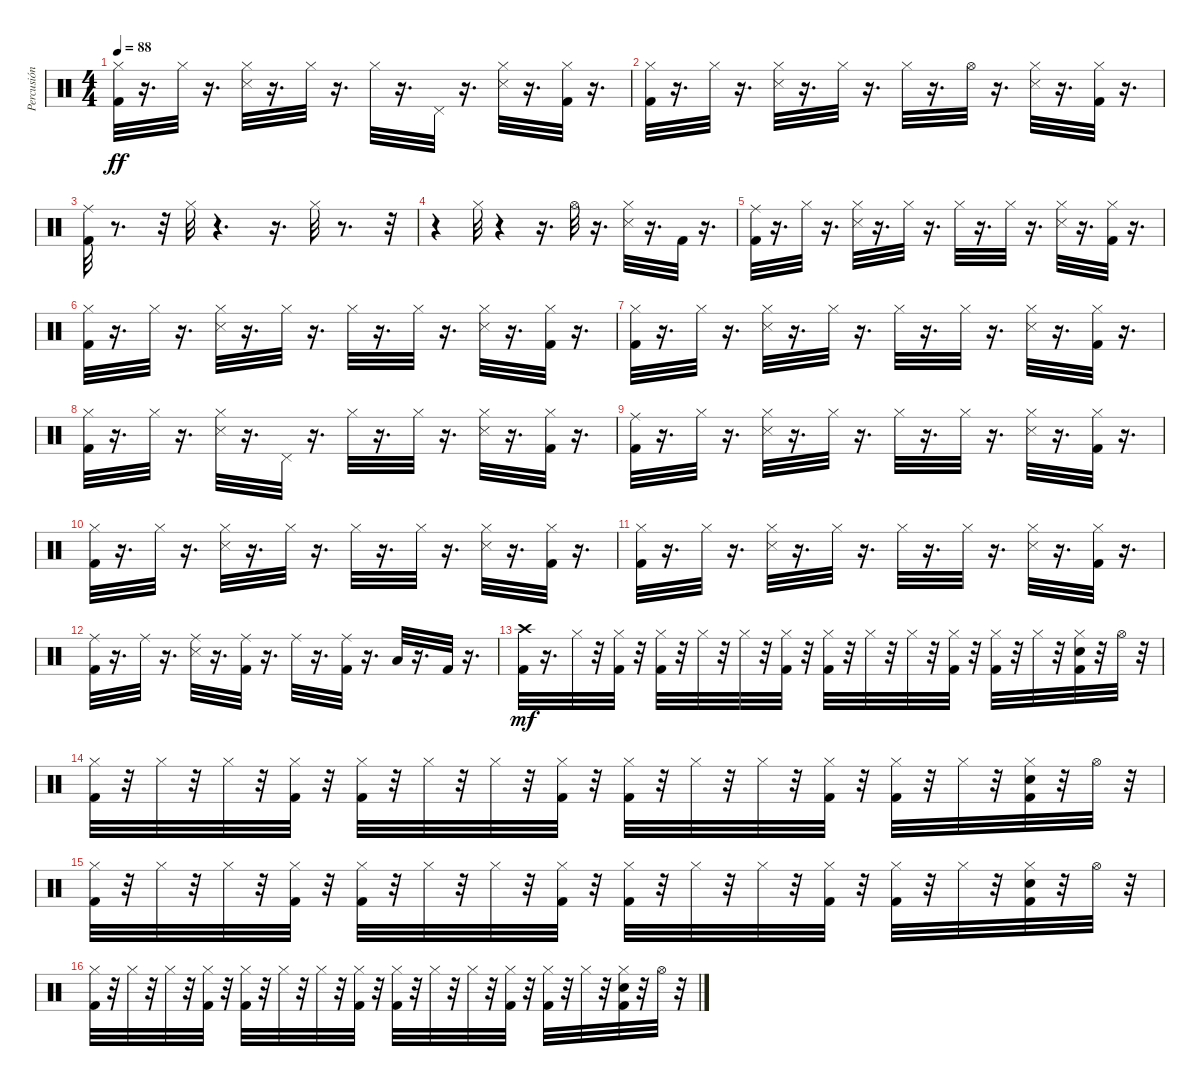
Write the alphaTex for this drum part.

\track ("Percusión" "Percusión") {instrument percussion}
\staff {score}
\articulation defaults
\ts (4 4)
\tempo 88
\clef neutral
\ks c
("Hi-Hat (closed)" "Kick (hit) 2").32{dy ff} r.16{d} "Hi-Hat (closed)".32 r.16{d} ("Hi-Hat (closed)" "Snare (side stick) 3").32 r.16{d} "Hi-Hat (closed)".32 r.16{d} "Hi-Hat (closed)".32 r.16{d} "Pedal Hi-Hat (hit)".32 r.16{d} ("Snare (side stick) 3" "Hi-Hat (closed)").32 r.16{d} ("Kick (hit) 2" "Hi-Hat (closed)").32 r.16{d} |
("Hi-Hat (closed)" "Kick (hit) 2").32 r.16{d} "Hi-Hat (closed)".32 r.16{d} ("Hi-Hat (closed)" "Snare (side stick) 3").32 r.16{d} "Hi-Hat (closed)".32 r.16{d} "Hi-Hat (closed)".32 r.16{d} "Hi-Hat (open)".32 r.16{d} ("Snare (side stick) 3" "Hi-Hat (closed)").32 r.16{d} ("Hi-Hat (closed)" "Kick (hit) 2").32 r.16{d} |
("Ride (middle)" "Kick (hit) 2").32 r.8{d} r.32 "Hi-Hat (closed)".32 r.4{d} r.16{d} "Hi-Hat (closed)".32 r.8{d} r.32 |
r.4 "Hi-Hat (closed)".32 r.4 r.16{d} "Hi-Hat (open)".32 r.16{d} ("Hi-Hat (closed)" "Snare (side stick) 3").32 r.16{d} "Kick (hit) 2".32 r.16{d} |
("Ride (middle)" "Kick (hit) 2").32 r.16{d} "Hi-Hat (closed)".32 r.16{d} ("Hi-Hat (closed)" "Snare (side stick) 3").32 r.16{d} "Hi-Hat (closed)".32 r.16{d} "Hi-Hat (closed)".32 r.16{d} "Hi-Hat (closed)".32 r.16{d} ("Snare (side stick) 3" "Hi-Hat (closed)").32 r.16{d} ("Hi-Hat (closed)" "Kick (hit) 2").32 r.16{d} |
("Kick (hit) 2" "Hi-Hat (closed)").32 r.16{d} "Hi-Hat (closed)".32 r.16{d} ("Snare (side stick) 3" "Hi-Hat (closed)").32 r.16{d} "Hi-Hat (closed)".32 r.16{d} "Hi-Hat (closed)".32 r.16{d} "Hi-Hat (closed)".32 r.16{d} ("Hi-Hat (closed)" "Snare (side stick) 3").32 r.16{d} ("Hi-Hat (closed)" "Kick (hit) 2").32 r.16{d} |
("Hi-Hat (closed)" "Kick (hit) 2").32 r.16{d} "Hi-Hat (closed)".32 r.16{d} ("Snare (side stick) 3" "Hi-Hat (closed)").32 r.16{d} "Hi-Hat (closed)".32 r.16{d} "Hi-Hat (closed)".32 r.16{d} "Hi-Hat (closed)".32 r.16{d} ("Snare (side stick) 3" "Hi-Hat (closed)").32 r.16{d} ("Hi-Hat (closed)" "Kick (hit) 2").32 r.16{d} |
("Kick (hit) 2" "Hi-Hat (closed)").32 r.16{d} "Hi-Hat (closed)".32 r.16{d} ("Hi-Hat (closed)" "Snare (side stick) 3").32 r.16{d} "Pedal Hi-Hat (hit)".32 r.16{d} "Hi-Hat (closed)".32 r.16{d} "Hi-Hat (closed)".32 r.16{d} ("Snare (side stick) 3" "Hi-Hat (closed)").32 r.16{d} ("Hi-Hat (closed)" "Kick (hit) 2").32 r.16{d} |
("Ride (middle)" "Kick (hit) 2").32 r.16{d} "Hi-Hat (closed)".32 r.16{d} ("Hi-Hat (closed)" "Snare (side stick) 3").32 r.16{d} "Hi-Hat (closed)".32 r.16{d} "Hi-Hat (closed)".32 r.16{d} "Hi-Hat (closed)".32 r.16{d} ("Snare (side stick) 3" "Hi-Hat (closed)").32 r.16{d} ("Hi-Hat (closed)" "Kick (hit) 2").32 r.16{d} |
("Kick (hit) 2" "Hi-Hat (closed)").32 r.16{d} "Hi-Hat (closed)".32 r.16{d} ("Snare (side stick) 3" "Hi-Hat (closed)").32 r.16{d} "Hi-Hat (closed)".32 r.16{d} "Hi-Hat (closed)".32 r.16{d} "Hi-Hat (closed)".32 r.16{d} ("Hi-Hat (closed)" "Snare (side stick) 3").32 r.16{d} ("Hi-Hat (closed)" "Kick (hit) 2").32 r.16{d} |
("Hi-Hat (closed)" "Kick (hit) 2").32 r.16{d} "Hi-Hat (closed)".32 r.16{d} ("Snare (side stick) 3" "Hi-Hat (closed)").32 r.16{d} "Hi-Hat (closed)".32 r.16{d} "Hi-Hat (closed)".32 r.16{d} "Hi-Hat (closed)".32 r.16{d} ("Snare (side stick) 3" "Hi-Hat (closed)").32 r.16{d} ("Hi-Hat (closed)" "Kick (hit) 2").32 r.16{d} |
("Kick (hit) 2" "Ride (middle)").32 r.16{d} "Ride (middle)".32 r.16{d} ("Ride (middle)" "Snare (side stick) 3").32 r.16{d} ("Ride (middle)" "Kick (hit) 2").32 r.16{d} "Ride (middle)".32 r.16{d} ("Kick (hit) 2" "Ride (middle)").32 r.16{d} "Low Floor Tom (hit)".32 r.16{d} "Kick (hit) 2".32 r.16{d} |
("Crash high (hit)" "Kick (hit) 2").32{dy mf} r.16{d} "Hi-Hat (closed)".32 r.32 ("Hi-Hat (closed)" "Kick (hit) 2").32 r.32 ("Hi-Hat (closed)" "Kick (hit) 2").32 r.32 "Hi-Hat (closed)".32 r.32 "Hi-Hat (closed)".32 r.32 ("Hi-Hat (closed)" "Kick (hit) 2").32 r.32 ("Hi-Hat (closed)" "Kick (hit) 2").32 r.32 "Hi-Hat (closed)".32 r.32 "Hi-Hat (closed)".32 r.32 ("Hi-Hat (closed)" "Kick (hit) 2").32 r.32 ("Hi-Hat (closed)" "Kick (hit) 2").32 r.32 "Hi-Hat (closed)".32 r.32 ("Hi-Hat (closed)" "Kick (hit) 2" "Hand Clap (hit)").32 r.32 "Hi-Hat (open)".32 r.32 |
("Hi-Hat (closed)" "Kick (hit) 2").32 r.32 "Hi-Hat (closed)".32 r.32 "Hi-Hat (closed)".32 r.32 ("Hi-Hat (closed)" "Kick (hit) 2").32 r.32 ("Hi-Hat (closed)" "Kick (hit) 2").32 r.32 "Hi-Hat (closed)".32 r.32 "Hi-Hat (closed)".32 r.32 ("Hi-Hat (closed)" "Kick (hit) 2").32 r.32 ("Hi-Hat (closed)" "Kick (hit) 2").32 r.32 "Hi-Hat (closed)".32 r.32 "Hi-Hat (closed)".32 r.32 ("Hi-Hat (closed)" "Kick (hit) 2").32 r.32 ("Hi-Hat (closed)" "Kick (hit) 2").32 r.32 "Hi-Hat (closed)".32 r.32 ("Hi-Hat (closed)" "Kick (hit) 2" "Hand Clap (hit)").32 r.32 "Hi-Hat (open)".32 r.32 |
("Hi-Hat (closed)" "Kick (hit) 2").32 r.32 "Hi-Hat (closed)".32 r.32 "Hi-Hat (closed)".32 r.32 ("Hi-Hat (closed)" "Kick (hit) 2").32 r.32 ("Hi-Hat (closed)" "Kick (hit) 2").32 r.32 "Hi-Hat (closed)".32 r.32 "Hi-Hat (closed)".32 r.32 ("Hi-Hat (closed)" "Kick (hit) 2").32 r.32 ("Hi-Hat (closed)" "Kick (hit) 2").32 r.32 "Hi-Hat (closed)".32 r.32 "Hi-Hat (closed)".32 r.32 ("Hi-Hat (closed)" "Kick (hit) 2").32 r.32 ("Hi-Hat (closed)" "Kick (hit) 2").32 r.32 "Hi-Hat (closed)".32 r.32 ("Hi-Hat (closed)" "Kick (hit) 2" "Hand Clap (hit)").32 r.32 "Hi-Hat (open)".32 r.32 |
("Hi-Hat (closed)" "Kick (hit) 2").32 r.32 "Hi-Hat (closed)".32 r.32 "Hi-Hat (closed)".32 r.32 ("Hi-Hat (closed)" "Kick (hit) 2").32 r.32 ("Hi-Hat (closed)" "Kick (hit) 2").32 r.32 "Hi-Hat (closed)".32 r.32 "Hi-Hat (closed)".32 r.32 ("Hi-Hat (closed)" "Kick (hit) 2").32 r.32 ("Hi-Hat (closed)" "Kick (hit) 2").32 r.32 "Hi-Hat (closed)".32 r.32 "Hi-Hat (closed)".32 r.32 ("Hi-Hat (closed)" "Kick (hit) 2").32 r.32 ("Hi-Hat (closed)" "Kick (hit) 2").32 r.32 "Hi-Hat (closed)".32 r.32 ("Hi-Hat (closed)" "Kick (hit) 2" "Hand Clap (hit)").32 r.32 "Hi-Hat (open)".32 r.32
